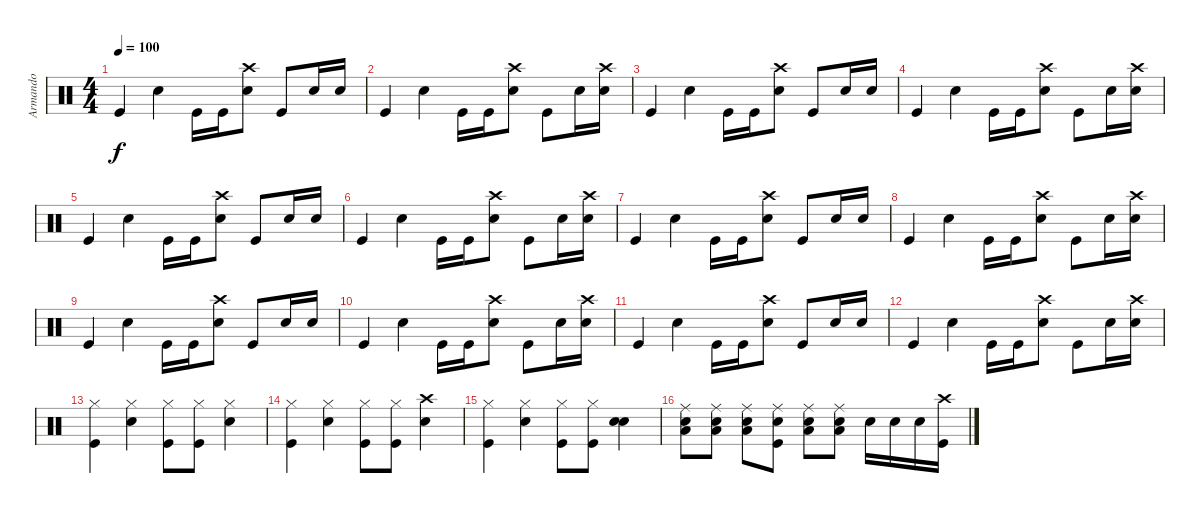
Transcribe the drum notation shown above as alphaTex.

\track ("Armando" "Armando") {instrument percussion}
\staff {score}
\articulation defaults
\ts (4 4)
\tempo 100
\clef neutral
\ks c "Kick (hit)".4{dy f} "Snare (hit) 2".4 "Kick (hit)".16 "Kick (hit)".16
("Crash high (hit)" "Snare (hit) 2").8 "Kick (hit)".8 "Snare (hit) 2".16 "Snare (hit) 2".16 |
"Kick (hit)".4 "Snare (hit) 2".4 "Kick (hit)".16 "Kick (hit)".16 ("Crash high (hit)" "Snare (hit) 2").8 "Kick (hit)".8 "Snare (hit) 2".16 ("Crash high (hit)" "Snare (hit) 2").16 |
"Kick (hit)".4 "Snare (hit) 2".4 "Kick (hit)".16 "Kick (hit)".16 ("Crash high (hit)" "Snare (hit) 2").8 "Kick (hit)".8 "Snare (hit) 2".16 "Snare (hit) 2".16 |
"Kick (hit)".4 "Snare (hit) 2".4 "Kick (hit)".16 "Kick (hit)".16 ("Crash high (hit)" "Snare (hit) 2").8 "Kick (hit)".8 "Snare (hit) 2".16 ("Crash high (hit)" "Snare (hit) 2").16 |
"Kick (hit)".4 "Snare (hit) 2".4 "Kick (hit)".16 "Kick (hit)".16 ("Crash high (hit)" "Snare (hit) 2").8 "Kick (hit)".8 "Snare (hit) 2".16 "Snare (hit) 2".16 |
"Kick (hit)".4 "Snare (hit) 2".4 "Kick (hit)".16 "Kick (hit)".16 ("Crash high (hit)" "Snare (hit) 2").8 "Kick (hit)".8 "Snare (hit) 2".16 ("Crash high (hit)" "Snare (hit) 2").16 |
"Kick (hit)".4 "Snare (hit) 2".4 "Kick (hit)".16 "Kick (hit)".16 ("Crash high (hit)" "Snare (hit) 2").8 "Kick (hit)".8 "Snare (hit) 2".16 "Snare (hit) 2".16 |
"Kick (hit)".4 "Snare (hit) 2".4 "Kick (hit)".16 "Kick (hit)".16 ("Crash high (hit)" "Snare (hit) 2").8 "Kick (hit)".8 "Snare (hit) 2".16 ("Crash high (hit)" "Snare (hit) 2").16 |
"Kick (hit)".4 "Snare (hit) 2".4 "Kick (hit)".16 "Kick (hit)".16 ("Crash high (hit)" "Snare (hit) 2").8 "Kick (hit)".8 "Snare (hit) 2".16 "Snare (hit) 2".16 |
"Kick (hit)".4 "Snare (hit) 2".4 "Kick (hit)".16 "Kick (hit)".16 ("Crash high (hit)" "Snare (hit) 2").8 "Kick (hit)".8 "Snare (hit) 2".16 ("Crash high (hit)" "Snare (hit) 2").16 |
"Kick (hit)".4 "Snare (hit) 2".4 "Kick (hit)".16 "Kick (hit)".16 ("Crash high (hit)" "Snare (hit) 2").8 "Kick (hit)".8 "Snare (hit) 2".16 "Snare (hit) 2".16 |
"Kick (hit)".4 "Snare (hit) 2".4 "Kick (hit)".16 "Kick (hit)".16 ("Crash high (hit)" "Snare (hit) 2").8 "Kick (hit)".8 "Snare (hit) 2".16 ("Crash high (hit)" "Snare (hit) 2").16 |
("Hi-Hat (closed)" "Kick (hit)").4 ("Hi-Hat (closed)" "Snare (hit) 2").4 ("Hi-Hat (closed)" "Kick (hit)").8 ("Hi-Hat (closed)" "Kick (hit)").8 ("Hi-Hat (closed)" "Snare (hit) 2").4 |
("Hi-Hat (closed)" "Kick (hit)").4 ("Hi-Hat (closed)" "Snare (hit) 2").4 ("Hi-Hat (closed)" "Kick (hit)").8 ("Hi-Hat (closed)" "Kick (hit)").8 ("Crash high (hit)" "Snare (hit) 2").4 |
("Hi-Hat (closed)" "Kick (hit)").4 ("Hi-Hat (closed)" "Snare (hit) 2").4 ("Hi-Hat (closed)" "Kick (hit)").8 ("Hi-Hat (closed)" "Kick (hit)").8 ("Snare (hit)" "Snare (hit) 2").4 |
("Ride (middle)" "Snare (hit) 2" "Low Tom (hit)").8 ("Ride (middle)" "Snare (hit) 2" "Low Tom (hit)").8 ("Ride (middle)" "Snare (hit) 2" "Low Tom (hit)").8 ("Ride (middle)" "Snare (hit) 2" "Kick (hit)").8 ("Ride (middle)" "Snare (hit) 2" "Low Tom (hit)").8 ("Ride (middle)" "Snare (hit) 2" "Low Tom (hit)").8 "Snare (hit) 2".16 "Snare (hit) 2".16 "Snare (hit) 2".16 ("Crash high (hit)" "Kick (hit)").16
